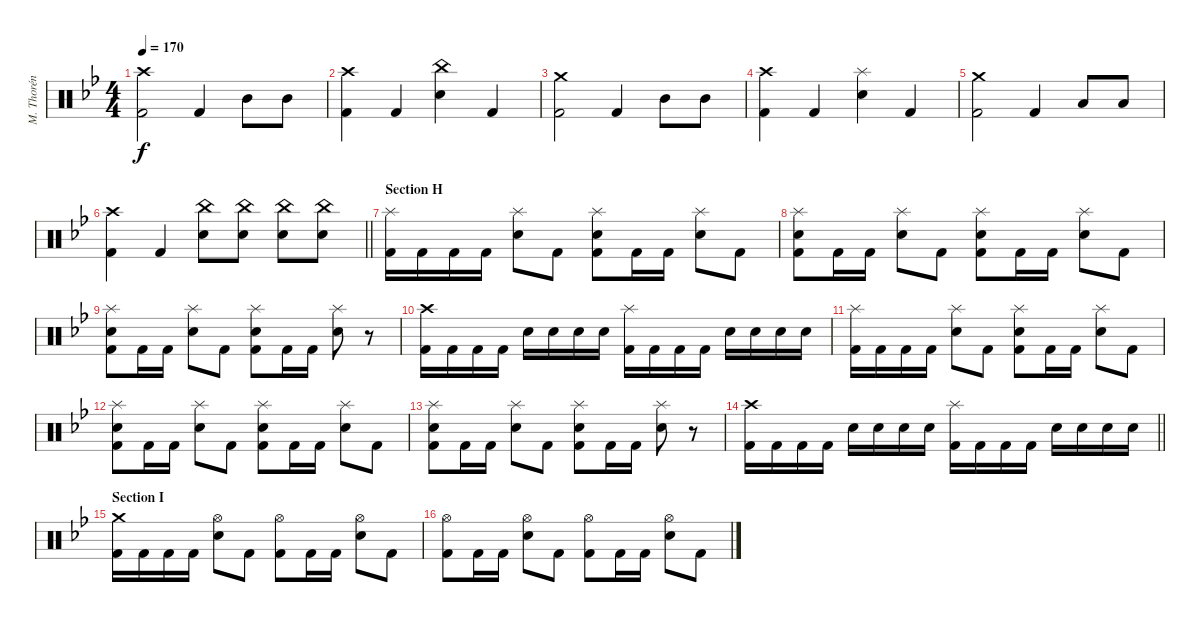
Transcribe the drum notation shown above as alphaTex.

\track ("M. Thorén (Drums)" "M. Thorén ") {instrument percussion}
\staff {score}
\articulation defaults
\ts (4 4)
\tempo 170
\clef neutral
\ks gminor
("Crash high (hit)" "Kick (hit) 2").2{dy f} "Kick (hit) 2".4 "Mid Tom (hit)".8 "Mid Tom (hit)".8 |
("Crash high (hit)" "Kick (hit) 2").4 "Kick (hit) 2".4 ("China (hit)" "Electric Snare (hit)").4 "Kick (hit) 2".4 |
("Crash medium (hit)" "Kick (hit) 2").2 "Kick (hit) 2".4 "Mid Tom (hit)".8 "Mid Tom (hit)".8 |
("Crash high (hit)" "Kick (hit) 2").4 "Kick (hit) 2".4 ("Splash (hit)" "Electric Snare (hit)").4 "Kick (hit) 2".4 |
("Crash medium (hit)" "Kick (hit) 2").2 "Kick (hit) 2".4 "Low Tom (hit)".8 "Low Tom (hit)".8 |
\barLineRight lightlight
("Crash high (hit)" "Kick (hit) 2").4 "Kick (hit) 2".4 ("China (hit)" "Electric Snare (hit)").8 ("China (hit)" "Electric Snare (hit)").8 ("China (hit)" "Electric Snare (hit)").8 ("China (hit)" "Electric Snare (hit)").8 |
\section ("" "Section H")
("Splash (hit)" "Kick (hit) 2").16 "Kick (hit) 2".16 "Kick (hit) 2".16 "Kick (hit) 2".16 ("Splash (hit)" "Electric Snare (hit)").8 "Kick (hit) 2".8 ("Splash (hit)" "Electric Snare (hit)" "Kick (hit) 2").8 "Kick (hit) 2".16 "Kick (hit) 2".16 ("Splash (hit)" "Electric Snare (hit)").8 "Kick (hit) 2".8 |
("Splash (hit)" "Electric Snare (hit)" "Kick (hit) 2").8 "Kick (hit) 2".16 "Kick (hit) 2".16 ("Splash (hit)" "Electric Snare (hit)").8 "Kick (hit) 2".8 ("Splash (hit)" "Electric Snare (hit)" "Kick (hit) 2").8 "Kick (hit) 2".16 "Kick (hit) 2".16 ("Splash (hit)" "Electric Snare (hit)").8 "Kick (hit) 2".8 |
("Splash (hit)" "Electric Snare (hit)" "Kick (hit) 2").8 "Kick (hit) 2".16 "Kick (hit) 2".16 ("Splash (hit)" "Electric Snare (hit)").8 "Kick (hit) 2".8 ("Splash (hit)" "Electric Snare (hit)" "Kick (hit) 2").8 "Kick (hit) 2".16 "Kick (hit) 2".16 ("Splash (hit)" "Electric Snare (hit)").8 r.8 |
("Crash high (hit)" "Kick (hit) 2").16 "Kick (hit) 2".16 "Kick (hit) 2".16 "Kick (hit) 2".16 "Electric Snare (hit)".16 "Electric Snare (hit)".16 "Electric Snare (hit)".16 "Electric Snare (hit)".16 ("Splash (hit)" "Kick (hit) 2").16 "Kick (hit) 2".16 "Kick (hit) 2".16 "Kick (hit) 2".16 "Electric Snare (hit)".16 "Electric Snare (hit)".16 "Electric Snare (hit)".16 "Electric Snare (hit)".16 |
("Splash (hit)" "Kick (hit) 2").16 "Kick (hit) 2".16 "Kick (hit) 2".16 "Kick (hit) 2".16 ("Splash (hit)" "Electric Snare (hit)").8 "Kick (hit) 2".8 ("Splash (hit)" "Electric Snare (hit)" "Kick (hit) 2").8 "Kick (hit) 2".16 "Kick (hit) 2".16 ("Splash (hit)" "Electric Snare (hit)").8 "Kick (hit) 2".8 |
("Splash (hit)" "Electric Snare (hit)" "Kick (hit) 2").8 "Kick (hit) 2".16 "Kick (hit) 2".16 ("Splash (hit)" "Electric Snare (hit)").8 "Kick (hit) 2".8 ("Splash (hit)" "Electric Snare (hit)" "Kick (hit) 2").8 "Kick (hit) 2".16 "Kick (hit) 2".16 ("Splash (hit)" "Electric Snare (hit)").8 "Kick (hit) 2".8 |
("Splash (hit)" "Electric Snare (hit)" "Kick (hit) 2").8 "Kick (hit) 2".16 "Kick (hit) 2".16 ("Splash (hit)" "Electric Snare (hit)").8 "Kick (hit) 2".8 ("Splash (hit)" "Electric Snare (hit)" "Kick (hit) 2").8 "Kick (hit) 2".16 "Kick (hit) 2".16 ("Splash (hit)" "Electric Snare (hit)").8 r.8 |
\barLineRight lightlight
("Crash high (hit)" "Kick (hit) 2").16 "Kick (hit) 2".16 "Kick (hit) 2".16 "Kick (hit) 2".16 "Electric Snare (hit)".16 "Electric Snare (hit)".16 "Electric Snare (hit)".16 "Electric Snare (hit)".16 ("Splash (hit)" "Kick (hit) 2").16 "Kick (hit) 2".16 "Kick (hit) 2".16 "Kick (hit) 2".16 "Electric Snare (hit)".16 "Electric Snare (hit)".16 "Electric Snare (hit)".16 "Electric Snare (hit)".16 |
\section ("" "Section I")
("Crash medium (hit)" "Kick (hit) 2").16 "Kick (hit) 2".16 "Kick (hit) 2".16 "Kick (hit) 2".16 ("Hi-Hat (open)" "Electric Snare (hit)").8 "Kick (hit) 2".8 ("Hi-Hat (open)" "Kick (hit) 2").8 "Kick (hit) 2".16 "Kick (hit) 2".16 ("Hi-Hat (open)" "Electric Snare (hit)").8 "Kick (hit) 2".8 |
("Hi-Hat (open)" "Kick (hit) 2").8 "Kick (hit) 2".16 "Kick (hit) 2".16 ("Hi-Hat (open)" "Electric Snare (hit)").8 "Kick (hit) 2".8 ("Hi-Hat (open)" "Kick (hit) 2").8 "Kick (hit) 2".16 "Kick (hit) 2".16 ("Hi-Hat (open)" "Electric Snare (hit)").8 "Kick (hit) 2".8
